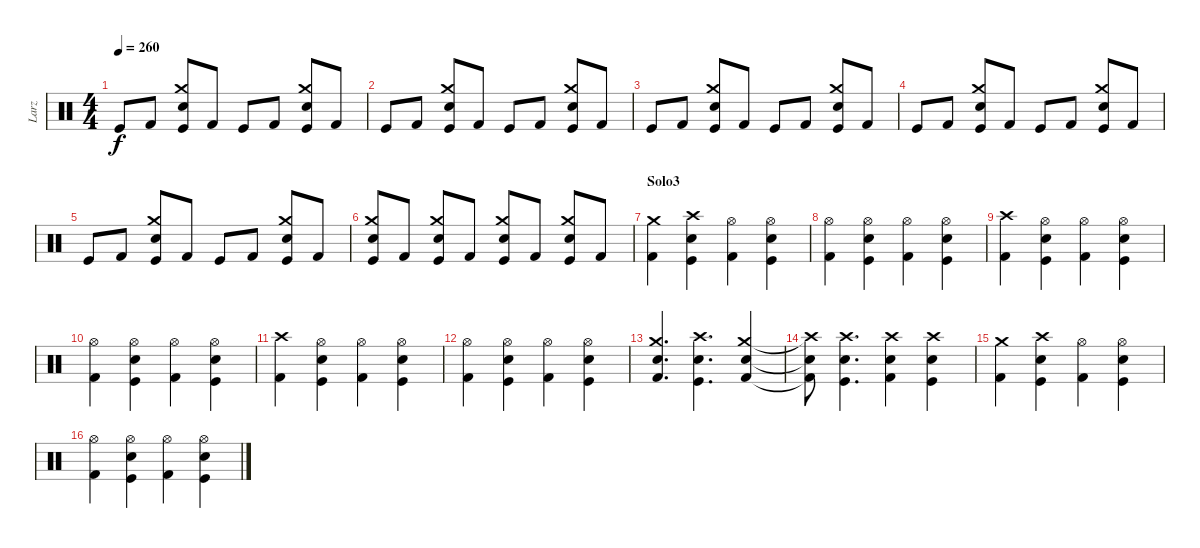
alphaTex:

\track ("Larz" "Larz") {instrument percussion}
\staff {score}
\articulation defaults
\ts (4 4)
\tempo 260
\clef neutral
\ks c "Kick (hit)".8{dy f} "Kick (hit) 2".8
("Crash medium (hit)" "Kick (hit)" "Electric Snare (hit)").8 "Kick (hit) 2".8 "Kick (hit)".8 "Kick (hit) 2".8 ("Crash medium (hit)" "Kick (hit)" "Electric Snare (hit)").8 "Kick (hit) 2".8 |
"Kick (hit)".8 "Kick (hit) 2".8 ("Crash medium (hit)" "Kick (hit)" "Electric Snare (hit)").8 "Kick (hit) 2".8 "Kick (hit)".8 "Kick (hit) 2".8 ("Crash medium (hit)" "Kick (hit)" "Electric Snare (hit)").8 "Kick (hit) 2".8 |
"Kick (hit)".8 "Kick (hit) 2".8 ("Crash medium (hit)" "Kick (hit)" "Electric Snare (hit)").8 "Kick (hit) 2".8 "Kick (hit)".8 "Kick (hit) 2".8 ("Crash medium (hit)" "Kick (hit)" "Electric Snare (hit)").8 "Kick (hit) 2".8 |
"Kick (hit)".8 "Kick (hit) 2".8 ("Crash medium (hit)" "Kick (hit)" "Electric Snare (hit)").8 "Kick (hit) 2".8 "Kick (hit)".8 "Kick (hit) 2".8 ("Crash medium (hit)" "Kick (hit)" "Electric Snare (hit)").8 "Kick (hit) 2".8 |
"Kick (hit)".8 "Kick (hit) 2".8 ("Crash medium (hit)" "Kick (hit)" "Electric Snare (hit)").8 "Kick (hit) 2".8 "Kick (hit)".8 "Kick (hit) 2".8 ("Crash medium (hit)" "Kick (hit)" "Electric Snare (hit)").8 "Kick (hit) 2".8 |
("Crash medium (hit)" "Kick (hit)" "Electric Snare (hit)").8 "Kick (hit) 2".8 ("Crash medium (hit)" "Kick (hit)" "Electric Snare (hit)").8 "Kick (hit) 2".8 ("Crash medium (hit)" "Kick (hit)" "Electric Snare (hit)").8 "Kick (hit) 2".8 ("Crash medium (hit)" "Kick (hit)" "Electric Snare (hit)").8 "Kick (hit) 2".8 |
\section ("" "Solo3")
("Crash medium (hit)" "Kick (hit) 2").4 ("Crash high (hit)" "Kick (hit)" "Electric Snare (hit)").4 ("Hi-Hat (open)" "Kick (hit) 2").4 ("Hi-Hat (open)" "Kick (hit)" "Electric Snare (hit)").4 |
("Hi-Hat (open)" "Kick (hit) 2").4 ("Hi-Hat (open)" "Kick (hit)" "Electric Snare (hit)").4 ("Hi-Hat (open)" "Kick (hit) 2").4 ("Hi-Hat (open)" "Kick (hit)" "Electric Snare (hit)").4 |
("Crash high (hit)" "Kick (hit) 2").4 ("Hi-Hat (open)" "Kick (hit)" "Electric Snare (hit)").4 ("Hi-Hat (open)" "Kick (hit) 2").4 ("Hi-Hat (open)" "Kick (hit)" "Electric Snare (hit)").4 |
("Hi-Hat (open)" "Kick (hit) 2").4 ("Hi-Hat (open)" "Kick (hit)" "Electric Snare (hit)").4 ("Hi-Hat (open)" "Kick (hit) 2").4 ("Hi-Hat (open)" "Kick (hit)" "Electric Snare (hit)").4 |
("Crash high (hit)" "Kick (hit) 2").4 ("Hi-Hat (open)" "Kick (hit)" "Electric Snare (hit)").4 ("Hi-Hat (open)" "Kick (hit) 2").4 ("Hi-Hat (open)" "Kick (hit)" "Electric Snare (hit)").4 |
("Hi-Hat (open)" "Kick (hit) 2").4 ("Hi-Hat (open)" "Kick (hit)" "Electric Snare (hit)").4 ("Hi-Hat (open)" "Kick (hit) 2").4 ("Hi-Hat (open)" "Kick (hit)" "Electric Snare (hit)").4 |
("Crash medium (hit)" "Kick (hit) 2" "Electric Snare (hit)").4{d} ("Crash high (hit)" "Kick (hit)" "Electric Snare (hit)").4{d} ("Crash medium (hit)" "Kick (hit) 2" "Electric Snare (hit)").4 |
("Crash high (hit)"{t} "Kick (hit) 2"{t} "Electric Snare (hit)"{t}).8 ("Crash high (hit)" "Kick (hit)" "Electric Snare (hit)").4{d} ("Crash high (hit)" "Kick (hit) 2" "Electric Snare (hit)").4 ("Crash high (hit)" "Kick (hit)" "Electric Snare (hit)").4 |
("Crash medium (hit)" "Kick (hit) 2").4 ("Crash high (hit)" "Kick (hit)" "Electric Snare (hit)").4 ("Hi-Hat (open)" "Kick (hit) 2").4 ("Hi-Hat (open)" "Kick (hit)" "Electric Snare (hit)").4 |
("Hi-Hat (open)" "Kick (hit) 2").4 ("Hi-Hat (open)" "Kick (hit)" "Electric Snare (hit)").4 ("Hi-Hat (open)" "Kick (hit) 2").4 ("Hi-Hat (open)" "Kick (hit)" "Electric Snare (hit)").4
